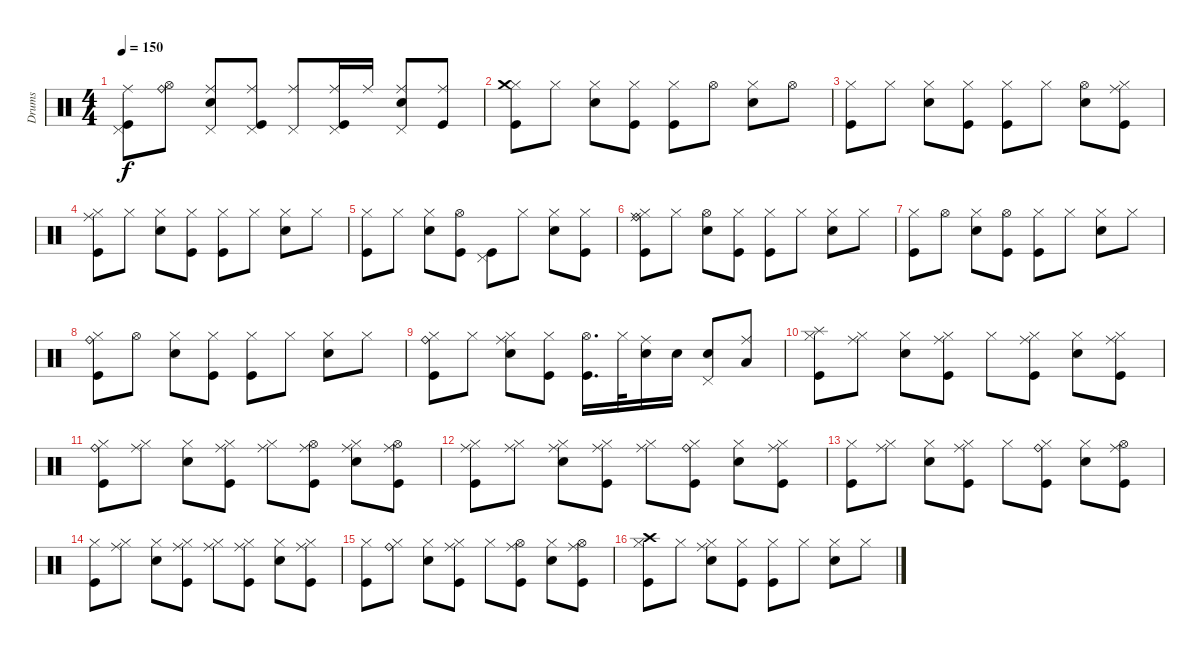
\track ("Drums" "Drums") {instrument percussion}
\staff {score}
\articulation defaults
\ts (4 4)
\tempo 150
\clef neutral
\ks c
("Kick (hit)" "Pedal Hi-Hat (hit)" "Ride (middle)").8{dy f} ("Hi-Hat (open)" "Ride (bell)").8 ("Snare (hit) 2" "Pedal Hi-Hat (hit)" "Ride (middle)").8 ("Kick (hit)" "Pedal Hi-Hat (hit)" "Ride (middle)").8 ("Pedal Hi-Hat (hit)" "Ride (middle)").8 ("Ride (middle)" "Kick (hit)" "Pedal Hi-Hat (hit)").16 "Ride (middle)".16 ("Ride (middle)" "Snare (hit) 2" "Pedal Hi-Hat (hit)").8 ("Kick (hit)" "Ride (middle)").8 |
("Kick (hit)" "Hi-Hat (closed)" "Crash medium (hit)").8 "Hi-Hat (closed)".8 ("Snare (hit) 2" "Hi-Hat (closed)").8 ("Kick (hit)" "Hi-Hat (closed)").8 ("Kick (hit)" "Hi-Hat (closed)").8 "Hi-Hat (open)".8 ("Snare (hit) 2" "Hi-Hat (closed)").8 "Hi-Hat (open)".8 |
("Kick (hit)" "Hi-Hat (closed)").8 "Hi-Hat (closed)".8 ("Snare (hit) 2" "Hi-Hat (closed)").8 ("Kick (hit)" "Hi-Hat (closed)").8 ("Kick (hit)" "Hi-Hat (closed)").8 "Hi-Hat (closed)".8 ("Snare (hit) 2" "Hi-Hat (open)").8 ("Ride (middle)" "Kick (hit)" "Hi-Hat (closed)").8 |
("Kick (hit)" "Hi-Hat (closed)" "Ride (middle)").8 "Hi-Hat (closed)".8 ("Snare (hit) 2" "Hi-Hat (closed)").8 ("Kick (hit)" "Hi-Hat (closed)").8 ("Kick (hit)" "Hi-Hat (closed)").8 "Hi-Hat (closed)".8 ("Snare (hit) 2" "Hi-Hat (closed)").8 "Hi-Hat (closed)".8 |
("Kick (hit)" "Hi-Hat (closed)").8 "Hi-Hat (closed)".8 ("Snare (hit) 2" "Hi-Hat (closed)").8 ("Kick (hit)" "Hi-Hat (open)").8 ("Kick (hit)" "Pedal Hi-Hat (hit)").8 "Hi-Hat (closed)".8 ("Snare (hit) 2" "Hi-Hat (closed)").8 ("Kick (hit)" "Hi-Hat (closed)").8 |
("Kick (hit)" "Hi-Hat (closed)" "Ride (middle)" "Ride (bell)").8 "Hi-Hat (closed)".8 ("Snare (hit) 2" "Hi-Hat (open)").8 ("Kick (hit)" "Hi-Hat (closed)").8 ("Kick (hit)" "Hi-Hat (closed)").8 "Hi-Hat (closed)".8 ("Snare (hit) 2" "Hi-Hat (closed)").8 "Hi-Hat (closed)".8 |
("Kick (hit)" "Hi-Hat (closed)").8 "Hi-Hat (open)".8 ("Snare (hit) 2" "Hi-Hat (closed)").8 ("Kick (hit)" "Hi-Hat (open)").8 ("Kick (hit)" "Hi-Hat (closed)").8 "Hi-Hat (closed)".8 ("Snare (hit) 2" "Hi-Hat (closed)").8 "Hi-Hat (closed)".8 |
("Kick (hit)" "Hi-Hat (closed)" "Ride (bell)").8 "Hi-Hat (open)".8 ("Snare (hit) 2" "Hi-Hat (closed)").8 ("Kick (hit)" "Hi-Hat (closed)").8 ("Kick (hit)" "Hi-Hat (closed)").8 "Hi-Hat (closed)".8 ("Snare (hit) 2" "Hi-Hat (closed)").8 "Hi-Hat (closed)".8 |
("Kick (hit)" "Hi-Hat (closed)" "Ride (bell)").8 "Hi-Hat (closed)".8 ("Ride (middle)" "Snare (hit) 2" "Hi-Hat (closed)").8 ("Kick (hit)" "Hi-Hat (closed)").8 ("Kick (hit)" "Hi-Hat (open)").16{d} "Hi-Hat (closed)".32 ("Snare (hit) 2" "Ride (middle)").16 "Snare (hit) 2".16 ("Snare (hit) 2" "Pedal Hi-Hat (hit)").8 ("Low Floor Tom (hit)" "Ride (middle)").8 |
("Kick (hit)" "Hi-Hat (closed)" "Splash (hit)").8 ("Hi-Hat (closed)" "Ride (middle)").8 ("Snare (hit) 2" "Hi-Hat (closed)").8 ("Hi-Hat (closed)" "Ride (middle)" "Kick (hit)").8 "Hi-Hat (closed)".8 ("Kick (hit)" "Hi-Hat (closed)" "Ride (middle)").8 ("Snare (hit) 2" "Hi-Hat (closed)").8 ("Hi-Hat (closed)" "Ride (middle)" "Kick (hit)").8 |
("Ride (bell)" "Kick (hit)" "Hi-Hat (closed)").8 ("Hi-Hat (closed)" "Ride (middle)").8 ("Snare (hit) 2" "Hi-Hat (closed)").8 ("Kick (hit)" "Hi-Hat (closed)" "Ride (middle)").8 ("Hi-Hat (closed)" "Ride (middle)").8 ("Kick (hit)" "Hi-Hat (open)" "Ride (middle)").8 ("Snare (hit) 2" "Hi-Hat (closed)" "Ride (middle)").8 ("Kick (hit)" "Hi-Hat (open)" "Ride (middle)").8 |
("Ride (middle)" "Kick (hit)" "Hi-Hat (closed)").8 ("Hi-Hat (closed)" "Ride (middle)").8 ("Ride (middle)" "Snare (hit) 2" "Hi-Hat (closed)").8 ("Hi-Hat (closed)" "Ride (middle)" "Kick (hit)").8 ("Hi-Hat (closed)" "Ride (middle)").8 ("Ride (bell)" "Kick (hit)" "Hi-Hat (closed)").8 ("Snare (hit) 2" "Hi-Hat (closed)").8 ("Kick (hit)" "Hi-Hat (closed)" "Ride (middle)").8 |
("Kick (hit)" "Hi-Hat (closed)").8 ("Hi-Hat (closed)" "Ride (middle)").8 ("Snare (hit) 2" "Hi-Hat (closed)").8 ("Kick (hit)" "Hi-Hat (closed)" "Ride (middle)").8 "Hi-Hat (closed)".8 ("Kick (hit)" "Hi-Hat (closed)" "Ride (bell)").8 ("Snare (hit) 2" "Hi-Hat (closed)").8 ("Kick (hit)" "Hi-Hat (open)" "Ride (middle)").8 |
("Kick (hit)" "Hi-Hat (closed)").8 ("Hi-Hat (closed)" "Ride (middle)").8 ("Snare (hit) 2" "Hi-Hat (closed)").8 ("Kick (hit)" "Hi-Hat (closed)" "Ride (middle)").8 ("Hi-Hat (closed)" "Ride (middle)").8 ("Kick (hit)" "Hi-Hat (closed)" "Ride (middle)").8 ("Snare (hit) 2" "Hi-Hat (closed)").8 ("Ride (middle)" "Kick (hit)" "Hi-Hat (closed)").8 |
("Kick (hit)" "Hi-Hat (closed)").8 ("Hi-Hat (closed)" "Ride (bell)").8 ("Snare (hit) 2" "Hi-Hat (closed)").8 ("Kick (hit)" "Hi-Hat (closed)" "Ride (middle)").8 "Hi-Hat (closed)".8 ("Kick (hit)" "Hi-Hat (open)" "Ride (middle)").8 ("Snare (hit) 2" "Hi-Hat (closed)").8 ("Kick (hit)" "Hi-Hat (open)" "Ride (middle)").8 |
("Hi-Hat (closed)" "Crash high (hit)" "Kick (hit)").8 "Hi-Hat (closed)".8 ("Snare (hit) 2" "Hi-Hat (closed)" "Ride (middle)").8 ("Kick (hit)" "Hi-Hat (closed)").8 ("Kick (hit)" "Hi-Hat (closed)").8 "Hi-Hat (closed)".8 ("Snare (hit) 2" "Hi-Hat (closed)").8 "Hi-Hat (closed)".8
